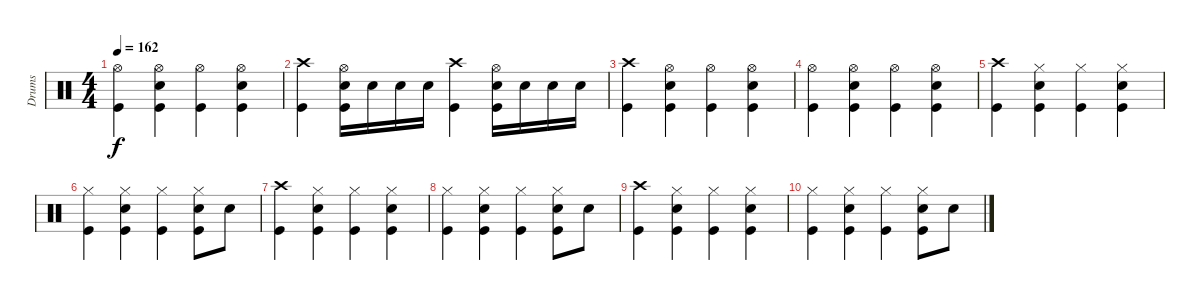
\track ("Drums" "Drums") {instrument percussion}
\staff {score}
\articulation defaults
\ts (4 4)
\tempo 162
\clef neutral
\ks c
("Hi-Hat (open)" "Kick (hit)").4{dy f} ("Hi-Hat (open)" "Snare (hit) 2" "Kick (hit)").4 ("Hi-Hat (open)" "Kick (hit)").4 ("Hi-Hat (open)" "Snare (hit) 2" "Kick (hit)").4 |
("Crash high (hit)" "Kick (hit)").4 ("Hi-Hat (open)" "Snare (hit) 2" "Kick (hit)").16 "Snare (hit) 2".16 "Snare (hit) 2".16 "Snare (hit) 2".16 ("Crash high (hit)" "Kick (hit)").4 ("Hi-Hat (open)" "Snare (hit) 2" "Kick (hit)").16 "Snare (hit) 2".16 "Snare (hit) 2".16 "Snare (hit) 2".16 |
("Crash high (hit)" "Kick (hit)").4 ("Hi-Hat (open)" "Snare (hit) 2" "Kick (hit)").4 ("Hi-Hat (open)" "Kick (hit)").4 ("Hi-Hat (open)" "Snare (hit) 2" "Kick (hit)").4 |
("Hi-Hat (open)" "Kick (hit)").4 ("Hi-Hat (open)" "Snare (hit) 2" "Kick (hit)").4 ("Hi-Hat (open)" "Kick (hit)").4 ("Hi-Hat (open)" "Snare (hit) 2" "Kick (hit)").4 |
("Crash high (hit)" "Kick (hit)").4 ("Hi-Hat (closed)" "Snare (hit) 2" "Kick (hit)").4 ("Hi-Hat (closed)" "Kick (hit)").4 ("Hi-Hat (closed)" "Snare (hit) 2" "Kick (hit)").4 |
("Hi-Hat (closed)" "Kick (hit)").4 ("Hi-Hat (closed)" "Snare (hit) 2" "Kick (hit)").4 ("Hi-Hat (closed)" "Kick (hit)").4 ("Hi-Hat (closed)" "Snare (hit) 2" "Kick (hit)").8 "Snare (hit) 2".8 |
("Crash high (hit)" "Kick (hit)").4 ("Hi-Hat (closed)" "Snare (hit) 2" "Kick (hit)").4 ("Hi-Hat (closed)" "Kick (hit)").4 ("Hi-Hat (closed)" "Snare (hit) 2" "Kick (hit)").4 |
("Hi-Hat (closed)" "Kick (hit)").4 ("Hi-Hat (closed)" "Snare (hit) 2" "Kick (hit)").4 ("Hi-Hat (closed)" "Kick (hit)").4 ("Hi-Hat (closed)" "Snare (hit) 2" "Kick (hit)").8 "Snare (hit) 2".8 |
("Crash high (hit)" "Kick (hit)").4 ("Hi-Hat (closed)" "Snare (hit) 2" "Kick (hit)").4 ("Hi-Hat (closed)" "Kick (hit)").4 ("Hi-Hat (closed)" "Snare (hit) 2" "Kick (hit)").4 |
("Hi-Hat (closed)" "Kick (hit)").4 ("Hi-Hat (closed)" "Snare (hit) 2" "Kick (hit)").4 ("Hi-Hat (closed)" "Kick (hit)").4 ("Hi-Hat (closed)" "Snare (hit) 2" "Kick (hit)").8 "Snare (hit) 2".8
